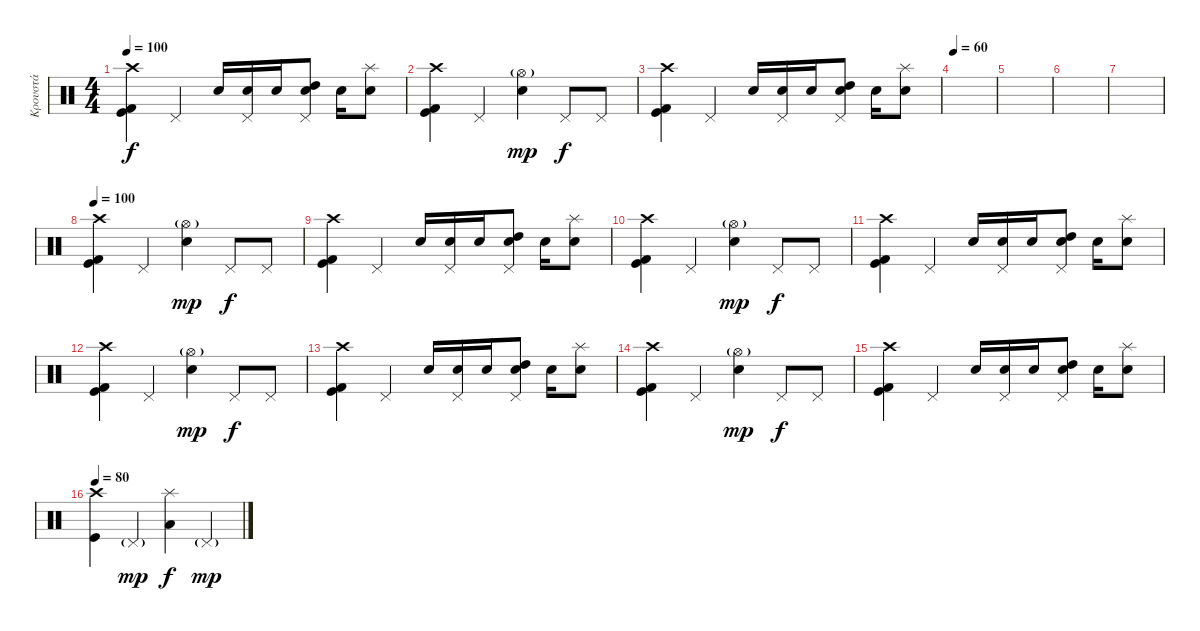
\track ("Κρουστά" "Κρουστά") {instrument percussion}
\staff {score}
\articulation defaults
\ts (4 4)
\tempo 100
\clef neutral
\ks c
("Kick (hit) 2" "Kick (hit)" "Crash high (hit)").4{dy f} "Pedal Hi-Hat (hit)".4 "Snare (hit) 2".16 ("Snare (hit) 2" "Pedal Hi-Hat (hit)").16 "Snare (hit) 2".16 ("Snare (hit) 2" "Pedal Hi-Hat (hit)" "High Tom (hit)").8 "Snare (hit) 2".16 ("Snare (hit) 2" "Splash (hit)").8 |
("Kick (hit) 2" "Kick (hit)" "Crash high (hit)").4 "Pedal Hi-Hat (hit)".4 ("Snare (hit) 2" "Hi-Hat (open)"{g}).4{dy mp} "Pedal Hi-Hat (hit)".8{dy f} "Pedal Hi-Hat (hit)".8 |
("Kick (hit) 2" "Kick (hit)" "Crash high (hit)").4 "Pedal Hi-Hat (hit)".4 "Snare (hit) 2".16 ("Snare (hit) 2" "Pedal Hi-Hat (hit)").16 "Snare (hit) 2".16 ("Snare (hit) 2" "Pedal Hi-Hat (hit)" "High Tom (hit)").8 "Snare (hit) 2".16 ("Snare (hit) 2" "Splash (hit)").8 |
\tempo 60
|
|
|
|
\tempo 100
("Kick (hit) 2" "Kick (hit)" "Crash high (hit)").4 "Pedal Hi-Hat (hit)".4 ("Snare (hit) 2" "Hi-Hat (open)"{g}).4{dy mp} "Pedal Hi-Hat (hit)".8{dy f} "Pedal Hi-Hat (hit)".8 |
("Kick (hit) 2" "Kick (hit)" "Crash high (hit)").4 "Pedal Hi-Hat (hit)".4 "Snare (hit) 2".16 ("Snare (hit) 2" "Pedal Hi-Hat (hit)").16 "Snare (hit) 2".16 ("Snare (hit) 2" "Pedal Hi-Hat (hit)" "High Tom (hit)").8 "Snare (hit) 2".16 ("Snare (hit) 2" "Splash (hit)").8 |
("Kick (hit) 2" "Kick (hit)" "Crash high (hit)").4 "Pedal Hi-Hat (hit)".4 ("Snare (hit) 2" "Hi-Hat (open)"{g}).4{dy mp} "Pedal Hi-Hat (hit)".8{dy f} "Pedal Hi-Hat (hit)".8 |
("Kick (hit) 2" "Kick (hit)" "Crash high (hit)").4 "Pedal Hi-Hat (hit)".4 "Snare (hit) 2".16 ("Snare (hit) 2" "Pedal Hi-Hat (hit)").16 "Snare (hit) 2".16 ("Snare (hit) 2" "Pedal Hi-Hat (hit)" "High Tom (hit)").8 "Snare (hit) 2".16 ("Snare (hit) 2" "Splash (hit)").8 |
("Kick (hit) 2" "Kick (hit)" "Crash high (hit)").4 "Pedal Hi-Hat (hit)".4 ("Snare (hit) 2" "Hi-Hat (open)"{g}).4{dy mp} "Pedal Hi-Hat (hit)".8{dy f} "Pedal Hi-Hat (hit)".8 |
("Kick (hit) 2" "Kick (hit)" "Crash high (hit)").4 "Pedal Hi-Hat (hit)".4 "Snare (hit) 2".16 ("Snare (hit) 2" "Pedal Hi-Hat (hit)").16 "Snare (hit) 2".16 ("Snare (hit) 2" "Pedal Hi-Hat (hit)" "High Tom (hit)").8 "Snare (hit) 2".16 ("Snare (hit) 2" "Splash (hit)").8 |
("Kick (hit) 2" "Kick (hit)" "Crash high (hit)").4 "Pedal Hi-Hat (hit)".4 ("Snare (hit) 2" "Hi-Hat (open)"{g}).4{dy mp} "Pedal Hi-Hat (hit)".8{dy f} "Pedal Hi-Hat (hit)".8 |
("Kick (hit) 2" "Kick (hit)" "Crash high (hit)").4 "Pedal Hi-Hat (hit)".4 "Snare (hit) 2".16 ("Snare (hit) 2" "Pedal Hi-Hat (hit)").16 "Snare (hit) 2".16 ("Snare (hit) 2" "Pedal Hi-Hat (hit)" "High Tom (hit)").8 "Snare (hit) 2".16 ("Snare (hit) 2" "Splash (hit)").8 |
\tempo 80
("Kick (hit)" "Crash high (hit)").4 "Pedal Hi-Hat (hit)"{g}.4{dy mp} ("Low Tom (hit)" "Splash (hit)").4{dy f} "Pedal Hi-Hat (hit)"{g}.4{dy mp}
